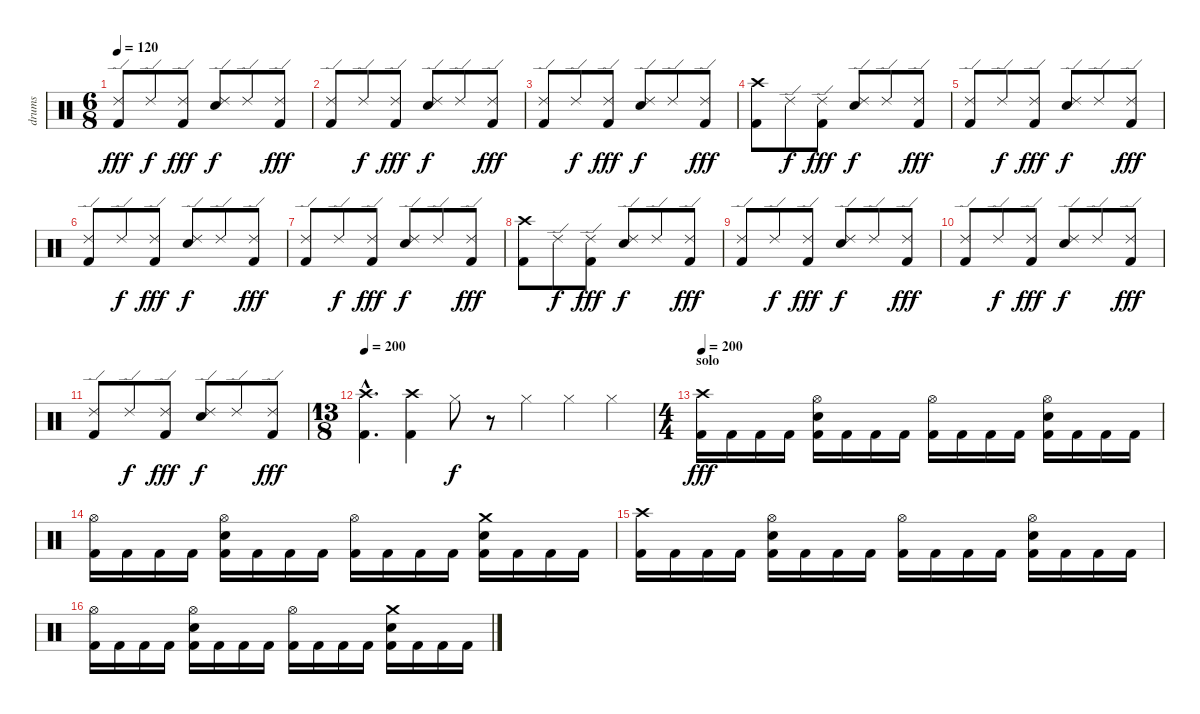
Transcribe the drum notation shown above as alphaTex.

\track ("drums" "drums") {instrument percussion}
\staff {score}
\articulation defaults
\ts (6 8)
\tempo 120
\clef neutral
\ks c
("Ride (edge) 2" "Kick (hit) 2").8{dy fff} "Ride (edge) 2".8{dy f} ("Ride (edge) 2" "Kick (hit) 2").8{dy fff} ("Ride (edge) 2" "Snare (hit) 2").8{dy f} "Ride (edge) 2".8 ("Ride (edge) 2" "Kick (hit) 2").8{dy fff} |
("Ride (edge) 2" "Kick (hit) 2").8 "Ride (edge) 2".8{dy f} ("Ride (edge) 2" "Kick (hit) 2").8{dy fff} ("Ride (edge) 2" "Snare (hit) 2").8{dy f} "Ride (edge) 2".8 ("Ride (edge) 2" "Kick (hit) 2").8{dy fff} |
("Ride (edge) 2" "Kick (hit) 2").8 "Ride (edge) 2".8{dy f} ("Ride (edge) 2" "Kick (hit) 2").8{dy fff} ("Ride (edge) 2" "Snare (hit) 2").8{dy f} "Ride (edge) 2".8 ("Ride (edge) 2" "Kick (hit) 2").8{dy fff} |
("Crash high (hit)" "Kick (hit) 2").8 "Ride (edge) 2".8{dy f} ("Ride (edge) 2" "Kick (hit) 2").8{dy fff} ("Ride (edge) 2" "Snare (hit) 2").8{dy f} "Ride (edge) 2".8 ("Ride (edge) 2" "Kick (hit) 2").8{dy fff} |
("Ride (edge) 2" "Kick (hit) 2").8 "Ride (edge) 2".8{dy f} ("Ride (edge) 2" "Kick (hit) 2").8{dy fff} ("Ride (edge) 2" "Snare (hit) 2").8{dy f} "Ride (edge) 2".8 ("Ride (edge) 2" "Kick (hit) 2").8{dy fff} |
("Ride (edge) 2" "Kick (hit) 2").8 "Ride (edge) 2".8{dy f} ("Ride (edge) 2" "Kick (hit) 2").8{dy fff} ("Ride (edge) 2" "Snare (hit) 2").8{dy f} "Ride (edge) 2".8 ("Ride (edge) 2" "Kick (hit) 2").8{dy fff} |
("Ride (edge) 2" "Kick (hit) 2").8 "Ride (edge) 2".8{dy f} ("Ride (edge) 2" "Kick (hit) 2").8{dy fff} ("Ride (edge) 2" "Snare (hit) 2").8{dy f} "Ride (edge) 2".8 ("Ride (edge) 2" "Kick (hit) 2").8{dy fff} |
("Crash high (hit)" "Kick (hit) 2").8 "Ride (edge) 2".8{dy f} ("Ride (edge) 2" "Kick (hit) 2").8{dy fff} ("Ride (edge) 2" "Snare (hit) 2").8{dy f} "Ride (edge) 2".8 ("Ride (edge) 2" "Kick (hit) 2").8{dy fff} |
("Ride (edge) 2" "Kick (hit) 2").8 "Ride (edge) 2".8{dy f} ("Ride (edge) 2" "Kick (hit) 2").8{dy fff} ("Ride (edge) 2" "Snare (hit) 2").8{dy f} "Ride (edge) 2".8 ("Ride (edge) 2" "Kick (hit) 2").8{dy fff} |
("Ride (edge) 2" "Kick (hit) 2").8 "Ride (edge) 2".8{dy f} ("Ride (edge) 2" "Kick (hit) 2").8{dy fff} ("Ride (edge) 2" "Snare (hit) 2").8{dy f} "Ride (edge) 2".8 ("Ride (edge) 2" "Kick (hit) 2").8{dy fff} |
("Ride (edge) 2" "Kick (hit) 2").8 "Ride (edge) 2".8{dy f} ("Ride (edge) 2" "Kick (hit) 2").8{dy fff} ("Ride (edge) 2" "Snare (hit) 2").8{dy f} "Ride (edge) 2".8 ("Ride (edge) 2" "Kick (hit) 2").8{dy fff} |
\ts (13 8)
\tempo 200
("Crash high (hit)"{hac} "Kick (hit) 2"{hac}).4{d} ("Crash high (hit)" "Kick (hit) 2").4 "Hi-Hat (closed)".8{dy f} r.8 "Hi-Hat (closed)".4 "Hi-Hat (closed)".4 "Hi-Hat (closed)".4 |
\ts (4 4)
\section ("" "solo")
\tempo 200
("Crash high (hit)" "Kick (hit) 2").16{dy fff} "Kick (hit) 2".16 "Kick (hit) 2".16 "Kick (hit) 2".16 ("Hi-Hat (open)" "Snare (hit) 2" "Kick (hit) 2").16 "Kick (hit) 2".16 "Kick (hit) 2".16 "Kick (hit) 2".16 ("Hi-Hat (open)" "Kick (hit) 2").16 "Kick (hit) 2".16 "Kick (hit) 2".16 "Kick (hit) 2".16 ("Hi-Hat (open)" "Snare (hit) 2" "Kick (hit) 2").16 "Kick (hit) 2".16 "Kick (hit) 2".16 "Kick (hit) 2".16 |
("Hi-Hat (open)" "Kick (hit) 2").16 "Kick (hit) 2".16 "Kick (hit) 2".16 "Kick (hit) 2".16 ("Hi-Hat (open)" "Snare (hit) 2" "Kick (hit) 2").16 "Kick (hit) 2".16 "Kick (hit) 2".16 "Kick (hit) 2".16 ("Hi-Hat (open)" "Kick (hit) 2").16 "Kick (hit) 2".16 "Kick (hit) 2".16 "Kick (hit) 2".16 ("Crash medium (hit)" "Snare (hit) 2" "Kick (hit) 2").16 "Kick (hit) 2".16 "Kick (hit) 2".16 "Kick (hit) 2".16 |
("Crash high (hit)" "Kick (hit) 2").16 "Kick (hit) 2".16 "Kick (hit) 2".16 "Kick (hit) 2".16 ("Hi-Hat (open)" "Snare (hit) 2" "Kick (hit) 2").16 "Kick (hit) 2".16 "Kick (hit) 2".16 "Kick (hit) 2".16 ("Hi-Hat (open)" "Kick (hit) 2").16 "Kick (hit) 2".16 "Kick (hit) 2".16 "Kick (hit) 2".16 ("Hi-Hat (open)" "Snare (hit) 2" "Kick (hit) 2").16 "Kick (hit) 2".16 "Kick (hit) 2".16 "Kick (hit) 2".16 |
("Hi-Hat (open)" "Kick (hit) 2").16 "Kick (hit) 2".16 "Kick (hit) 2".16 "Kick (hit) 2".16 ("Hi-Hat (open)" "Snare (hit) 2" "Kick (hit) 2").16 "Kick (hit) 2".16 "Kick (hit) 2".16 "Kick (hit) 2".16 ("Hi-Hat (open)" "Kick (hit) 2").16 "Kick (hit) 2".16 "Kick (hit) 2".16 "Kick (hit) 2".16 ("Crash medium (hit)" "Snare (hit) 2" "Kick (hit) 2").16 "Kick (hit) 2".16 "Kick (hit) 2".16 "Kick (hit) 2".16
